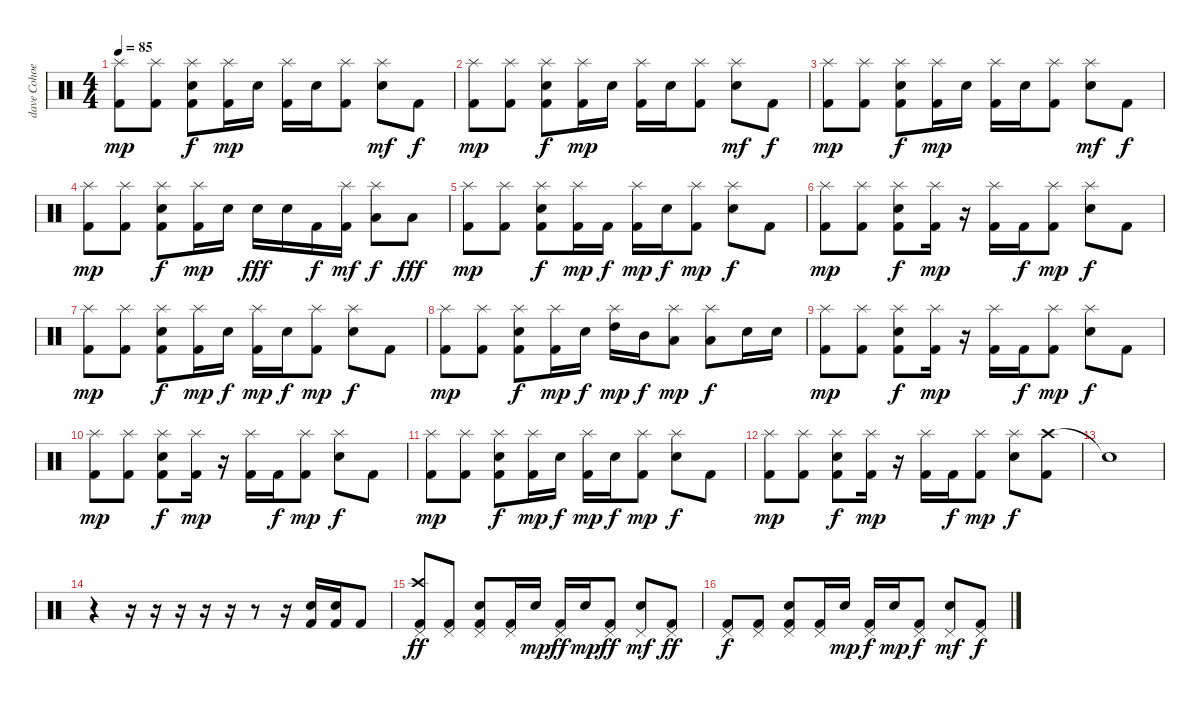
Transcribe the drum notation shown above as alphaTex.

\track ("dave Cohoe" "dave Cohoe") {instrument percussion}
\staff {score}
\articulation defaults
\ts (4 4)
\tempo 85
\clef neutral
\ks c
("Splash (hit)" "Kick (hit) 2").8{dy mp} ("Splash (hit)" "Kick (hit) 2").8 ("Splash (hit)" "Electric Snare (hit)" "Kick (hit) 2").8{dy f} ("Splash (hit)" "Kick (hit) 2").16{dy mp} "Snare (hit) 2".16 ("Splash (hit)" "Kick (hit) 2").16 "Electric Snare (hit)".16 ("Splash (hit)" "Kick (hit) 2").8 ("Splash (hit)" "Electric Snare (hit)").8{dy mf} "Kick (hit) 2".8{dy f} |
("Splash (hit)" "Kick (hit) 2").8{dy mp} ("Splash (hit)" "Kick (hit) 2").8 ("Splash (hit)" "Electric Snare (hit)" "Kick (hit) 2").8{dy f} ("Splash (hit)" "Kick (hit) 2").16{dy mp} "Snare (hit) 2".16 ("Splash (hit)" "Kick (hit) 2").16 "Electric Snare (hit)".16 ("Splash (hit)" "Kick (hit) 2").8 ("Splash (hit)" "Electric Snare (hit)").8{dy mf} "Kick (hit) 2".8{dy f} |
("Splash (hit)" "Kick (hit) 2").8{dy mp} ("Splash (hit)" "Kick (hit) 2").8 ("Splash (hit)" "Electric Snare (hit)" "Kick (hit) 2").8{dy f} ("Splash (hit)" "Kick (hit) 2").16{dy mp} "Snare (hit) 2".16 ("Splash (hit)" "Kick (hit) 2").16 "Electric Snare (hit)".16 ("Splash (hit)" "Kick (hit) 2").8 ("Splash (hit)" "Electric Snare (hit)").8{dy mf} "Kick (hit) 2".8{dy f} |
("Splash (hit)" "Kick (hit) 2").8{dy mp} ("Splash (hit)" "Kick (hit) 2").8 ("Splash (hit)" "Electric Snare (hit)" "Kick (hit) 2").8{dy f} ("Splash (hit)" "Kick (hit) 2").16{dy mp} "Snare (hit) 2".16 "Electric Snare (hit)".16{dy fff} "Electric Snare (hit)".16 "Kick (hit) 2".16{dy f} ("Splash (hit)" "Kick (hit) 2").16{dy mf} ("Splash (hit)" "Low Tom (hit)").8{dy f} "Low Floor Tom (hit)".8{dy fff} |
("Splash (hit)" "Kick (hit) 2").8{dy mp volume 12} ("Splash (hit)" "Kick (hit) 2").8 ("Splash (hit)" "Electric Snare (hit)" "Kick (hit) 2").8{dy f} ("Splash (hit)" "Kick (hit) 2").16{dy mp} "Kick (hit) 2".16{dy f} ("Splash (hit)" "Kick (hit) 2").16{dy mp} "Electric Snare (hit)".16{dy f} ("Splash (hit)" "Kick (hit) 2").8{dy mp} ("Splash (hit)" "Electric Snare (hit)").8{dy f} "Kick (hit) 2".8 |
("Splash (hit)" "Kick (hit) 2").8{dy mp volume 12} ("Splash (hit)" "Kick (hit) 2").8 ("Splash (hit)" "Electric Snare (hit)" "Kick (hit) 2").8{dy f} ("Splash (hit)" "Kick (hit) 2").16{dy mp} r.16 ("Splash (hit)" "Kick (hit) 2").16 "Kick (hit) 2".16{dy f} ("Splash (hit)" "Kick (hit) 2").8{dy mp} ("Splash (hit)" "Electric Snare (hit)").8{dy f} "Kick (hit) 2".8 |
("Splash (hit)" "Kick (hit) 2").8{dy mp volume 12} ("Splash (hit)" "Kick (hit) 2").8 ("Splash (hit)" "Electric Snare (hit)" "Kick (hit) 2").8{dy f} ("Splash (hit)" "Kick (hit) 2").16{dy mp} "Snare (hit) 2".16{dy f} ("Splash (hit)" "Kick (hit) 2").16{dy mp} "Electric Snare (hit)".16{dy f} ("Splash (hit)" "Kick (hit) 2").8{dy mp} ("Splash (hit)" "Electric Snare (hit)").8{dy f} "Kick (hit) 2".8 |
("Splash (hit)" "Kick (hit) 2").8{dy mp volume 12} ("Splash (hit)" "Kick (hit) 2").8 ("Splash (hit)" "Electric Snare (hit)" "Kick (hit) 2").8{dy f} ("Splash (hit)" "Kick (hit) 2").16{dy mp} "Electric Snare (hit)".16{dy f} ("Splash (hit)" "High Tom (hit)").16{dy mp} "Mid Tom (hit)".16{dy f} ("Splash (hit)" "Low Tom (hit)").8{dy mp} ("Splash (hit)" "Low Floor Tom (hit)").8{dy f} "Electric Snare (hit)".16 "Electric Snare (hit)".16 |
("Splash (hit)" "Kick (hit) 2").8{dy mp volume 12} ("Splash (hit)" "Kick (hit) 2").8 ("Splash (hit)" "Electric Snare (hit)" "Kick (hit) 2").8{dy f} ("Splash (hit)" "Kick (hit) 2").16{dy mp} r.16 ("Splash (hit)" "Kick (hit) 2").16 "Kick (hit) 2".16{dy f} ("Splash (hit)" "Kick (hit) 2").8{dy mp} ("Splash (hit)" "Electric Snare (hit)").8{dy f} "Kick (hit) 2".8 |
("Splash (hit)" "Kick (hit) 2").8{dy mp volume 12} ("Splash (hit)" "Kick (hit) 2").8 ("Splash (hit)" "Electric Snare (hit)" "Kick (hit) 2").8{dy f} ("Splash (hit)" "Kick (hit) 2").16{dy mp} r.16 ("Splash (hit)" "Kick (hit) 2").16 "Kick (hit) 2".16{dy f} ("Splash (hit)" "Kick (hit) 2").8{dy mp} ("Splash (hit)" "Electric Snare (hit)").8{dy f} "Kick (hit) 2".8 |
("Splash (hit)" "Kick (hit) 2").8{dy mp volume 12} ("Splash (hit)" "Kick (hit) 2").8 ("Splash (hit)" "Electric Snare (hit)" "Kick (hit) 2").8{dy f} ("Splash (hit)" "Kick (hit) 2").16{dy mp} "Snare (hit) 2".16{dy f} ("Splash (hit)" "Kick (hit) 2").16{dy mp} "Electric Snare (hit)".16{dy f} ("Splash (hit)" "Kick (hit) 2").8{dy mp} ("Splash (hit)" "Electric Snare (hit)").8{dy f} "Kick (hit) 2".8 |
("Splash (hit)" "Kick (hit) 2").8{dy mp volume 12} ("Splash (hit)" "Kick (hit) 2").8 ("Splash (hit)" "Electric Snare (hit)" "Kick (hit) 2").8{dy f} ("Splash (hit)" "Kick (hit) 2").16{dy mp} r.16 ("Splash (hit)" "Kick (hit) 2").16 "Kick (hit) 2".16{dy f} ("Splash (hit)" "Kick (hit) 2").8{dy mp} ("Splash (hit)" "Electric Snare (hit)").8{dy f} ("Crash high (hit)" "Kick (hit) 2").8 |
"Snare (hit)"{t}.1 |
r.4 r.16 r.16 r.16 r.16 r.16 r.8 r.16 ("Electric Snare (hit)" "Kick (hit) 2").16 ("Electric Snare (hit)" "Kick (hit) 2").16 "Kick (hit) 2".8 |
("Pedal Hi-Hat (hit)" "Crash high (hit)" "Kick (hit) 2").8{dy ff} ("Pedal Hi-Hat (hit)" "Kick (hit) 2").8 ("Pedal Hi-Hat (hit)" "Electric Snare (hit)" "Kick (hit) 2").8 ("Pedal Hi-Hat (hit)" "Kick (hit) 2").16 "Snare (hit) 2".16{dy mp} ("Pedal Hi-Hat (hit)" "Kick (hit) 2").16{dy ff} "Electric Snare (hit)".16{dy mp} ("Pedal Hi-Hat (hit)" "Kick (hit) 2").8{dy ff} ("Pedal Hi-Hat (hit)" "Electric Snare (hit)").8{dy mf} ("Pedal Hi-Hat (hit)" "Kick (hit) 2").8{dy ff} |
("Pedal Hi-Hat (hit)" "Kick (hit) 2").8{dy f} ("Pedal Hi-Hat (hit)" "Kick (hit) 2").8 ("Pedal Hi-Hat (hit)" "Electric Snare (hit)" "Kick (hit) 2").8 ("Pedal Hi-Hat (hit)" "Kick (hit) 2").16 "Snare (hit) 2".16{dy mp} ("Pedal Hi-Hat (hit)" "Kick (hit) 2").16{dy f} "Electric Snare (hit)".16{dy mp} ("Pedal Hi-Hat (hit)" "Kick (hit) 2").8{dy f} ("Pedal Hi-Hat (hit)" "Electric Snare (hit)").8{dy mf} ("Pedal Hi-Hat (hit)" "Kick (hit) 2").8{dy f}
